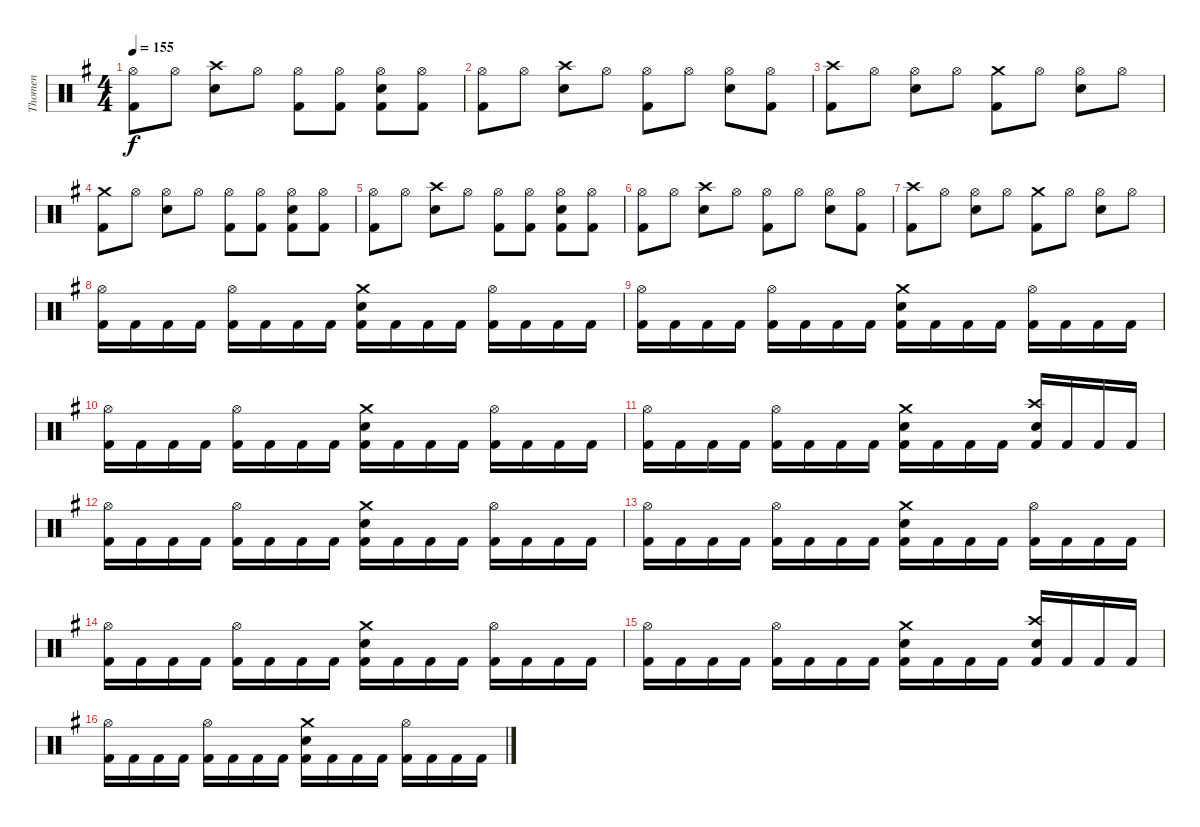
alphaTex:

\track ("Thomen" "Thomen") {instrument percussion}
\staff {score}
\articulation defaults
\ts (4 4)
\tempo 155
\clef neutral
\ks g
("Hi-Hat (open)" "Kick (hit) 2").8{dy f} "Hi-Hat (open)".8 ("Crash high (hit)" "Electric Snare (hit)").8 "Hi-Hat (open)".8 ("Hi-Hat (open)" "Kick (hit) 2").8 ("Hi-Hat (open)" "Kick (hit) 2").8 ("Hi-Hat (open)" "Electric Snare (hit)" "Kick (hit) 2").8 ("Hi-Hat (open)" "Kick (hit) 2").8 |
("Hi-Hat (open)" "Kick (hit) 2").8 "Hi-Hat (open)".8 ("Crash high (hit)" "Electric Snare (hit)").8 "Hi-Hat (open)".8 ("Hi-Hat (open)" "Kick (hit) 2").8 "Hi-Hat (open)".8 ("Hi-Hat (open)" "Electric Snare (hit)").8 ("Hi-Hat (open)" "Kick (hit) 2").8 |
("Crash high (hit)" "Kick (hit) 2").8 "Hi-Hat (open)".8 ("Hi-Hat (open)" "Electric Snare (hit)").8 "Hi-Hat (open)".8 ("Crash medium (hit)" "Kick (hit) 2").8 "Hi-Hat (open)".8 ("Hi-Hat (open)" "Electric Snare (hit)").8 "Hi-Hat (open)".8 |
("Crash medium (hit)" "Kick (hit) 2").8 "Hi-Hat (open)".8 ("Hi-Hat (open)" "Electric Snare (hit)").8 "Hi-Hat (open)".8 ("Hi-Hat (open)" "Kick (hit) 2").8 ("Hi-Hat (open)" "Kick (hit) 2").8 ("Hi-Hat (open)" "Electric Snare (hit)" "Kick (hit) 2").8 ("Hi-Hat (open)" "Kick (hit) 2").8 |
("Hi-Hat (open)" "Kick (hit) 2").8 "Hi-Hat (open)".8 ("Crash high (hit)" "Electric Snare (hit)").8 "Hi-Hat (open)".8 ("Hi-Hat (open)" "Kick (hit) 2").8 ("Hi-Hat (open)" "Kick (hit) 2").8 ("Hi-Hat (open)" "Electric Snare (hit)" "Kick (hit) 2").8 ("Hi-Hat (open)" "Kick (hit) 2").8 |
("Hi-Hat (open)" "Kick (hit) 2").8 "Hi-Hat (open)".8 ("Crash high (hit)" "Electric Snare (hit)").8 "Hi-Hat (open)".8 ("Hi-Hat (open)" "Kick (hit) 2").8 "Hi-Hat (open)".8 ("Hi-Hat (open)" "Electric Snare (hit)").8 ("Hi-Hat (open)" "Kick (hit) 2").8 |
("Crash high (hit)" "Kick (hit) 2").8 "Hi-Hat (open)".8 ("Hi-Hat (open)" "Electric Snare (hit)").8 "Hi-Hat (open)".8 ("Crash medium (hit)" "Kick (hit) 2").8 "Hi-Hat (open)".8 ("Hi-Hat (open)" "Electric Snare (hit)").8 "Hi-Hat (open)".8 |
("Hi-Hat (open)" "Kick (hit) 2").16 "Kick (hit) 2".16 "Kick (hit) 2".16 "Kick (hit) 2".16 ("Hi-Hat (open)" "Kick (hit) 2").16 "Kick (hit) 2".16 "Kick (hit) 2".16 "Kick (hit) 2".16 ("Crash medium (hit)" "Electric Snare (hit)" "Kick (hit) 2").16 "Kick (hit) 2".16 "Kick (hit) 2".16 "Kick (hit) 2".16 ("Hi-Hat (open)" "Kick (hit) 2").16 "Kick (hit) 2".16 "Kick (hit) 2".16 "Kick (hit) 2".16 |
("Hi-Hat (open)" "Kick (hit) 2").16 "Kick (hit) 2".16 "Kick (hit) 2".16 "Kick (hit) 2".16 ("Hi-Hat (open)" "Kick (hit) 2").16 "Kick (hit) 2".16 "Kick (hit) 2".16 "Kick (hit) 2".16 ("Crash medium (hit)" "Electric Snare (hit)" "Kick (hit) 2").16 "Kick (hit) 2".16 "Kick (hit) 2".16 "Kick (hit) 2".16 ("Hi-Hat (open)" "Kick (hit) 2").16 "Kick (hit) 2".16 "Kick (hit) 2".16 "Kick (hit) 2".16 |
("Hi-Hat (open)" "Kick (hit) 2").16 "Kick (hit) 2".16 "Kick (hit) 2".16 "Kick (hit) 2".16 ("Hi-Hat (open)" "Kick (hit) 2").16 "Kick (hit) 2".16 "Kick (hit) 2".16 "Kick (hit) 2".16 ("Crash medium (hit)" "Electric Snare (hit)" "Kick (hit) 2").16 "Kick (hit) 2".16 "Kick (hit) 2".16 "Kick (hit) 2".16 ("Hi-Hat (open)" "Kick (hit) 2").16 "Kick (hit) 2".16 "Kick (hit) 2".16 "Kick (hit) 2".16 |
("Hi-Hat (open)" "Kick (hit) 2").16 "Kick (hit) 2".16 "Kick (hit) 2".16 "Kick (hit) 2".16 ("Hi-Hat (open)" "Kick (hit) 2").16 "Kick (hit) 2".16 "Kick (hit) 2".16 "Kick (hit) 2".16 ("Crash medium (hit)" "Electric Snare (hit)" "Kick (hit) 2").16 "Kick (hit) 2".16 "Kick (hit) 2".16 "Kick (hit) 2".16 ("Crash high (hit)" "Electric Snare (hit)" "Kick (hit) 2").16 "Kick (hit) 2".16 "Kick (hit) 2".16 "Kick (hit) 2".16 |
("Hi-Hat (open)" "Kick (hit) 2").16 "Kick (hit) 2".16 "Kick (hit) 2".16 "Kick (hit) 2".16 ("Hi-Hat (open)" "Kick (hit) 2").16 "Kick (hit) 2".16 "Kick (hit) 2".16 "Kick (hit) 2".16 ("Crash medium (hit)" "Electric Snare (hit)" "Kick (hit) 2").16 "Kick (hit) 2".16 "Kick (hit) 2".16 "Kick (hit) 2".16 ("Hi-Hat (open)" "Kick (hit) 2").16 "Kick (hit) 2".16 "Kick (hit) 2".16 "Kick (hit) 2".16 |
("Hi-Hat (open)" "Kick (hit) 2").16 "Kick (hit) 2".16 "Kick (hit) 2".16 "Kick (hit) 2".16 ("Hi-Hat (open)" "Kick (hit) 2").16 "Kick (hit) 2".16 "Kick (hit) 2".16 "Kick (hit) 2".16 ("Crash medium (hit)" "Electric Snare (hit)" "Kick (hit) 2").16 "Kick (hit) 2".16 "Kick (hit) 2".16 "Kick (hit) 2".16 ("Hi-Hat (open)" "Kick (hit) 2").16 "Kick (hit) 2".16 "Kick (hit) 2".16 "Kick (hit) 2".16 |
("Hi-Hat (open)" "Kick (hit) 2").16 "Kick (hit) 2".16 "Kick (hit) 2".16 "Kick (hit) 2".16 ("Hi-Hat (open)" "Kick (hit) 2").16 "Kick (hit) 2".16 "Kick (hit) 2".16 "Kick (hit) 2".16 ("Crash medium (hit)" "Electric Snare (hit)" "Kick (hit) 2").16 "Kick (hit) 2".16 "Kick (hit) 2".16 "Kick (hit) 2".16 ("Hi-Hat (open)" "Kick (hit) 2").16 "Kick (hit) 2".16 "Kick (hit) 2".16 "Kick (hit) 2".16 |
("Hi-Hat (open)" "Kick (hit) 2").16 "Kick (hit) 2".16 "Kick (hit) 2".16 "Kick (hit) 2".16 ("Hi-Hat (open)" "Kick (hit) 2").16 "Kick (hit) 2".16 "Kick (hit) 2".16 "Kick (hit) 2".16 ("Crash medium (hit)" "Electric Snare (hit)" "Kick (hit) 2").16 "Kick (hit) 2".16 "Kick (hit) 2".16 "Kick (hit) 2".16 ("Crash high (hit)" "Electric Snare (hit)" "Kick (hit) 2").16 "Kick (hit) 2".16 "Kick (hit) 2".16 "Kick (hit) 2".16 |
("Hi-Hat (open)" "Kick (hit) 2").16 "Kick (hit) 2".16 "Kick (hit) 2".16 "Kick (hit) 2".16 ("Hi-Hat (open)" "Kick (hit) 2").16 "Kick (hit) 2".16 "Kick (hit) 2".16 "Kick (hit) 2".16 ("Crash medium (hit)" "Electric Snare (hit)" "Kick (hit) 2").16 "Kick (hit) 2".16 "Kick (hit) 2".16 "Kick (hit) 2".16 ("Hi-Hat (open)" "Kick (hit) 2").16 "Kick (hit) 2".16 "Kick (hit) 2".16 "Kick (hit) 2".16
